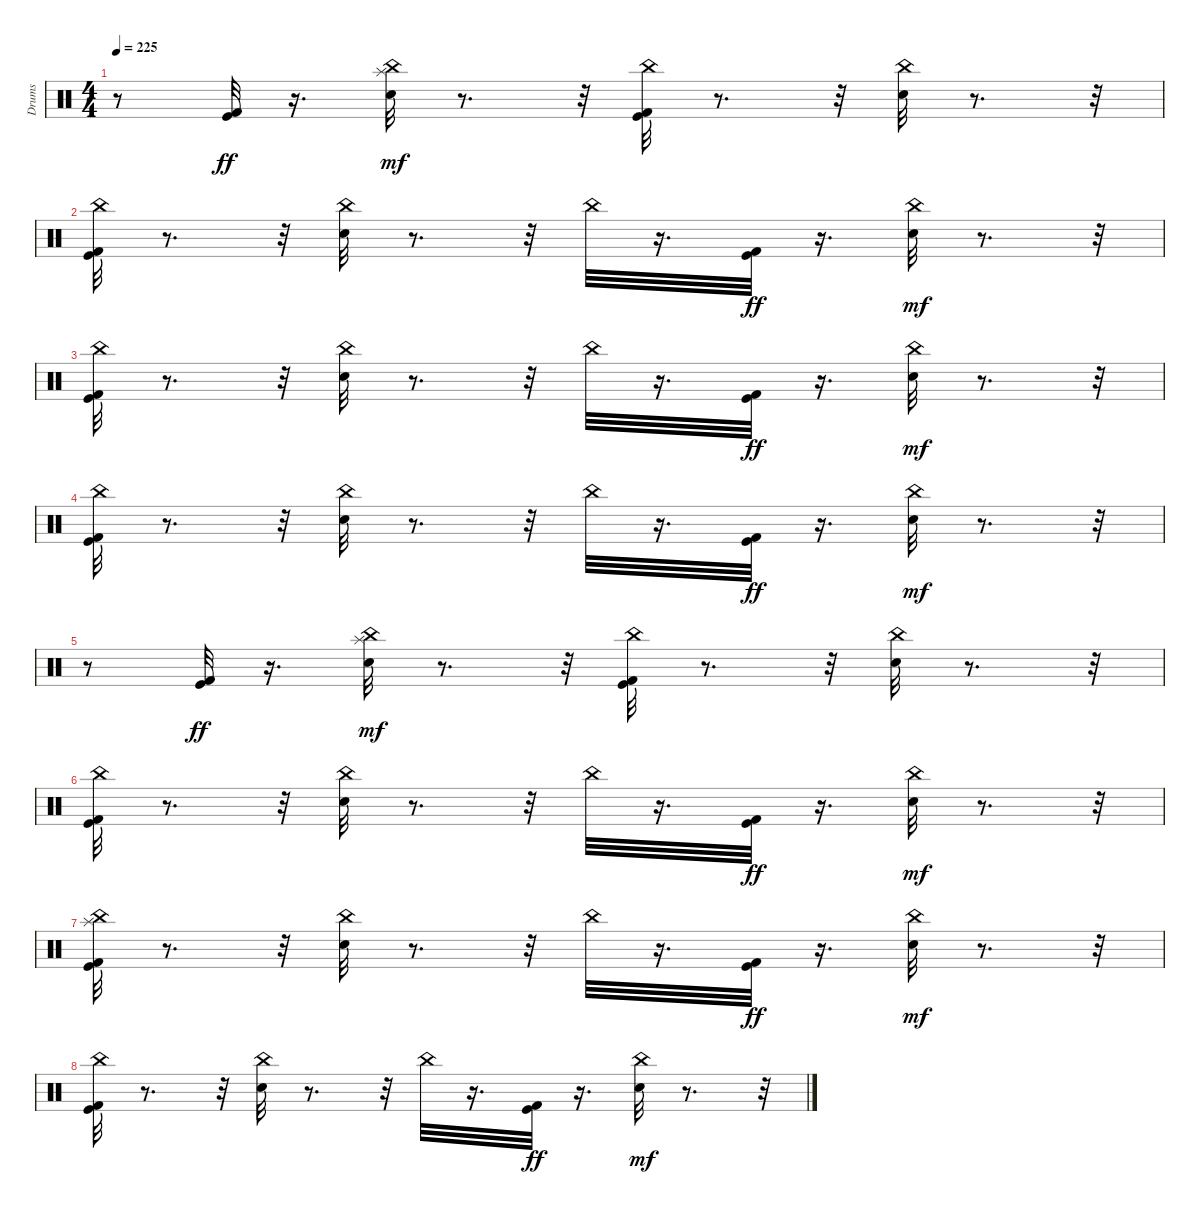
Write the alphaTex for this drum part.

\track ("Drums" "Drums") {instrument percussion}
\staff {score}
\articulation defaults
\ts (4 4)
\tempo 225
\clef neutral
\ks c
r.8{dy mf} ("Kick (hit) 2" "Kick (hit)").32{dy ff} r.16{d} ("Snare (hit) 2" "Splash (hit)" "China (hit)").32{dy mf} r.8{d} r.32 ("Kick (hit) 2" "Kick (hit)" "China (hit)").32 r.8{d} r.32 ("Snare (hit) 2" "China (hit)").32 r.8{d} r.32 |
("Kick (hit) 2" "Kick (hit)" "China (hit)").32 r.8{d} r.32 ("Snare (hit) 2" "China (hit)").32 r.8{d} r.32 "China (hit)".32 r.16{d} ("Kick (hit) 2" "Kick (hit)").32{dy ff} r.16{d} ("Snare (hit) 2" "China (hit)").32{dy mf} r.8{d} r.32 |
("Kick (hit) 2" "Kick (hit)" "China (hit)").32 r.8{d} r.32 ("Snare (hit) 2" "China (hit)").32 r.8{d} r.32 "China (hit)".32 r.16{d} ("Kick (hit) 2" "Kick (hit)").32{dy ff} r.16{d} ("Snare (hit) 2" "China (hit)").32{dy mf} r.8{d} r.32 |
("Kick (hit) 2" "Kick (hit)" "China (hit)").32 r.8{d} r.32 ("Snare (hit) 2" "China (hit)").32 r.8{d} r.32 "China (hit)".32 r.16{d} ("Kick (hit) 2" "Kick (hit)").32{dy ff} r.16{d} ("Snare (hit) 2" "China (hit)").32{dy mf} r.8{d} r.32 |
r.8 ("Kick (hit) 2" "Kick (hit)").32{dy ff} r.16{d} ("Snare (hit) 2" "Splash (hit)" "China (hit)").32{dy mf} r.8{d} r.32 ("Kick (hit) 2" "Kick (hit)" "China (hit)").32 r.8{d} r.32 ("Snare (hit) 2" "China (hit)").32 r.8{d} r.32 |
("Kick (hit) 2" "Kick (hit)" "China (hit)").32 r.8{d} r.32 ("Snare (hit) 2" "China (hit)").32 r.8{d} r.32 "China (hit)".32 r.16{d} ("Kick (hit) 2" "Kick (hit)").32{dy ff} r.16{d} ("Snare (hit) 2" "China (hit)").32{dy mf} r.8{d} r.32 |
("Kick (hit) 2" "Kick (hit)" "China (hit)" "Splash (hit)").32 r.8{d} r.32 ("Snare (hit) 2" "China (hit)").32 r.8{d} r.32 "China (hit)".32 r.16{d} ("Kick (hit) 2" "Kick (hit)").32{dy ff} r.16{d} ("Snare (hit) 2" "China (hit)").32{dy mf} r.8{d} r.32 |
("Kick (hit) 2" "Kick (hit)" "China (hit)").32 r.8{d} r.32 ("Snare (hit) 2" "China (hit)").32 r.8{d} r.32 "China (hit)".32 r.16{d} ("Kick (hit) 2" "Kick (hit)").32{dy ff} r.16{d} ("Snare (hit) 2" "China (hit)").32{dy mf} r.8{d} r.32
